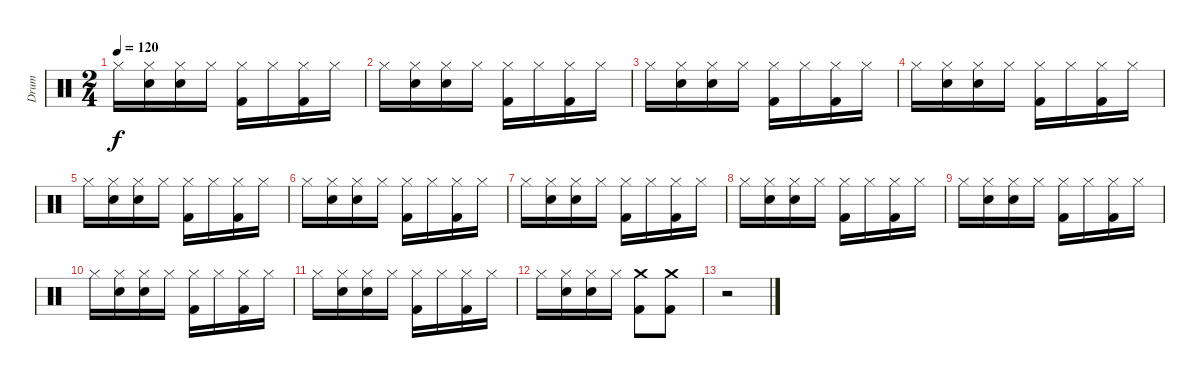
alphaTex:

\track ("Drum" "Drum") {instrument percussion}
\staff {score}
\articulation defaults
\ts (2 4)
\tempo 120
\clef neutral
\ks c "Hi-Hat (closed)".16{dy f}
("Hi-Hat (closed)" "Snare (hit) 2").16 ("Hi-Hat (closed)" "Snare (hit) 2").16 "Hi-Hat (closed)".16 ("Kick (hit) 2" "Hi-Hat (closed)").16 "Hi-Hat (closed)".16 ("Kick (hit) 2" "Hi-Hat (closed)").16 "Hi-Hat (closed)".16 |
"Hi-Hat (closed)".16 ("Hi-Hat (closed)" "Snare (hit) 2").16 ("Hi-Hat (closed)" "Snare (hit) 2").16 "Hi-Hat (closed)".16 ("Kick (hit) 2" "Hi-Hat (closed)").16 "Hi-Hat (closed)".16 ("Kick (hit) 2" "Hi-Hat (closed)").16 "Hi-Hat (closed)".16 |
"Hi-Hat (closed)".16 ("Hi-Hat (closed)" "Snare (hit) 2").16 ("Hi-Hat (closed)" "Snare (hit) 2").16 "Hi-Hat (closed)".16 ("Kick (hit) 2" "Hi-Hat (closed)").16 "Hi-Hat (closed)".16 ("Kick (hit) 2" "Hi-Hat (closed)").16 "Hi-Hat (closed)".16 |
"Hi-Hat (closed)".16 ("Hi-Hat (closed)" "Snare (hit) 2").16 ("Hi-Hat (closed)" "Snare (hit) 2").16 "Hi-Hat (closed)".16 ("Kick (hit) 2" "Hi-Hat (closed)").16 "Hi-Hat (closed)".16 ("Kick (hit) 2" "Hi-Hat (closed)").16 "Hi-Hat (closed)".16 |
"Hi-Hat (closed)".16 ("Hi-Hat (closed)" "Snare (hit) 2").16 ("Hi-Hat (closed)" "Snare (hit) 2").16 "Hi-Hat (closed)".16 ("Kick (hit) 2" "Hi-Hat (closed)").16 "Hi-Hat (closed)".16 ("Kick (hit) 2" "Hi-Hat (closed)").16 "Hi-Hat (closed)".16 |
"Hi-Hat (closed)".16 ("Hi-Hat (closed)" "Snare (hit) 2").16 ("Hi-Hat (closed)" "Snare (hit) 2").16 "Hi-Hat (closed)".16 ("Kick (hit) 2" "Hi-Hat (closed)").16 "Hi-Hat (closed)".16 ("Kick (hit) 2" "Hi-Hat (closed)").16 "Hi-Hat (closed)".16 |
"Hi-Hat (closed)".16 ("Hi-Hat (closed)" "Snare (hit) 2").16 ("Hi-Hat (closed)" "Snare (hit) 2").16 "Hi-Hat (closed)".16 ("Kick (hit) 2" "Hi-Hat (closed)").16 "Hi-Hat (closed)".16 ("Kick (hit) 2" "Hi-Hat (closed)").16 "Hi-Hat (closed)".16 |
"Hi-Hat (closed)".16 ("Hi-Hat (closed)" "Snare (hit) 2").16 ("Hi-Hat (closed)" "Snare (hit) 2").16 "Hi-Hat (closed)".16 ("Kick (hit) 2" "Hi-Hat (closed)").16 "Hi-Hat (closed)".16 ("Kick (hit) 2" "Hi-Hat (closed)").16 "Hi-Hat (closed)".16 |
"Hi-Hat (closed)".16 ("Hi-Hat (closed)" "Snare (hit) 2").16 ("Hi-Hat (closed)" "Snare (hit) 2").16 "Hi-Hat (closed)".16 ("Kick (hit) 2" "Hi-Hat (closed)").16 "Hi-Hat (closed)".16 ("Kick (hit) 2" "Hi-Hat (closed)").16 "Hi-Hat (closed)".16 |
"Hi-Hat (closed)".16 ("Hi-Hat (closed)" "Snare (hit) 2").16 ("Hi-Hat (closed)" "Snare (hit) 2").16 "Hi-Hat (closed)".16 ("Kick (hit) 2" "Hi-Hat (closed)").16 "Hi-Hat (closed)".16 ("Kick (hit) 2" "Hi-Hat (closed)").16 "Hi-Hat (closed)".16 |
"Hi-Hat (closed)".16 ("Hi-Hat (closed)" "Snare (hit) 2").16 ("Hi-Hat (closed)" "Snare (hit) 2").16 "Hi-Hat (closed)".16 ("Kick (hit) 2" "Hi-Hat (closed)").16 "Hi-Hat (closed)".16 ("Kick (hit) 2" "Hi-Hat (closed)").16 "Hi-Hat (closed)".16 |
"Hi-Hat (closed)".16 ("Hi-Hat (closed)" "Snare (hit) 2").16 ("Hi-Hat (closed)" "Snare (hit) 2").16 "Hi-Hat (closed)".16 ("Kick (hit) 2" "Crash medium (hit)").8 ("Kick (hit) 2" "Crash medium (hit)").8 |
r.2
